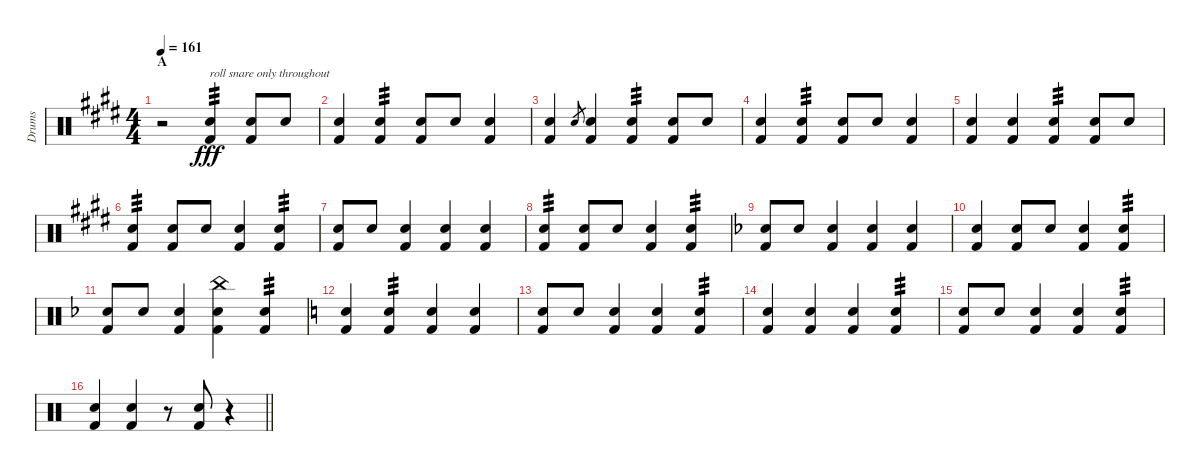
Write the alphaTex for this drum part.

\track ("Drums" "Drums") {instrument percussion}
\staff {score}
\articulation defaults
\ts (4 4)
\section ("" "A")
\tempo 161
\clef neutral
\ks e
r.2{dy fff} ("Snare (hit) 2" "Kick (hit) 2").4{txt "roll snare only throughout" tp 3} ("Snare (hit) 2" "Kick (hit) 2").8 "Snare (hit) 2".8 |
("Snare (hit) 2" "Kick (hit) 2").4 ("Snare (hit) 2" "Kick (hit) 2").4{tp 3} ("Snare (hit) 2" "Kick (hit) 2").8 "Snare (hit) 2".8 ("Snare (hit) 2" "Kick (hit) 2").4 |
("Snare (hit) 2" "Kick (hit) 2").4 "Snare (hit) 2".8{gr} ("Snare (hit) 2" "Kick (hit) 2").4 ("Snare (hit) 2" "Kick (hit) 2").4{tp 3} ("Snare (hit) 2" "Kick (hit) 2").8 "Snare (hit) 2".8 |
("Snare (hit) 2" "Kick (hit) 2").4 ("Snare (hit) 2" "Kick (hit) 2").4{tp 3} ("Snare (hit) 2" "Kick (hit) 2").8 "Snare (hit) 2".8 ("Snare (hit) 2" "Kick (hit) 2").4 |
("Snare (hit) 2" "Kick (hit) 2").4 ("Snare (hit) 2" "Kick (hit) 2").4 ("Snare (hit) 2" "Kick (hit) 2").4{tp 3} ("Snare (hit) 2" "Kick (hit) 2").8 "Snare (hit) 2".8 |
("Snare (hit) 2" "Kick (hit) 2").4{tp 3} ("Snare (hit) 2" "Kick (hit) 2").8 "Snare (hit) 2".8 ("Snare (hit) 2" "Kick (hit) 2").4 ("Snare (hit) 2" "Kick (hit) 2").4{tp 3} |
("Snare (hit) 2" "Kick (hit) 2").8 "Snare (hit) 2".8 ("Snare (hit) 2" "Kick (hit) 2").4 ("Snare (hit) 2" "Kick (hit) 2").4 ("Snare (hit) 2" "Kick (hit) 2").4 |
("Snare (hit) 2" "Kick (hit) 2").4{tp 3} ("Snare (hit) 2" "Kick (hit) 2").8 "Snare (hit) 2".8 ("Snare (hit) 2" "Kick (hit) 2").4 ("Snare (hit) 2" "Kick (hit) 2").4{tp 3} |
\ks f
("Snare (hit) 2" "Kick (hit) 2").8 "Snare (hit) 2".8 ("Snare (hit) 2" "Kick (hit) 2").4 ("Snare (hit) 2" "Kick (hit) 2").4 ("Snare (hit) 2" "Kick (hit) 2").4 |
("Snare (hit) 2" "Kick (hit) 2").4 ("Snare (hit) 2" "Kick (hit) 2").8 "Snare (hit) 2".8 ("Snare (hit) 2" "Kick (hit) 2").4 ("Snare (hit) 2" "Kick (hit) 2").4{tp 3} |
("Snare (hit) 2" "Kick (hit) 2").8 "Snare (hit) 2".8 ("Snare (hit) 2" "Kick (hit) 2").4 ("China (hit)" "Snare (hit) 2" "Kick (hit) 2").4 ("Snare (hit) 2" "Kick (hit) 2").4{tp 3} |
\ks c
("Snare (hit) 2" "Kick (hit) 2").4 ("Snare (hit) 2" "Kick (hit) 2").4{tp 3} ("Snare (hit) 2" "Kick (hit) 2").4 ("Snare (hit) 2" "Kick (hit) 2").4 |
("Snare (hit) 2" "Kick (hit) 2").8 "Snare (hit) 2".8 ("Snare (hit) 2" "Kick (hit) 2").4 ("Snare (hit) 2" "Kick (hit) 2").4 ("Snare (hit) 2" "Kick (hit) 2").4{tp 3} |
("Snare (hit) 2" "Kick (hit) 2").4 ("Snare (hit) 2" "Kick (hit) 2").4 ("Snare (hit) 2" "Kick (hit) 2").4 ("Snare (hit) 2" "Kick (hit) 2").4{tp 3} |
("Snare (hit) 2" "Kick (hit) 2").8 "Snare (hit) 2".8 ("Snare (hit) 2" "Kick (hit) 2").4 ("Snare (hit) 2" "Kick (hit) 2").4 ("Snare (hit) 2" "Kick (hit) 2").4{tp 3} |
\barLineRight lightlight
("Snare (hit) 2" "Kick (hit) 2").4 ("Snare (hit) 2" "Kick (hit) 2").4 r.8 ("Snare (hit) 2" "Kick (hit) 2").8 r.4
